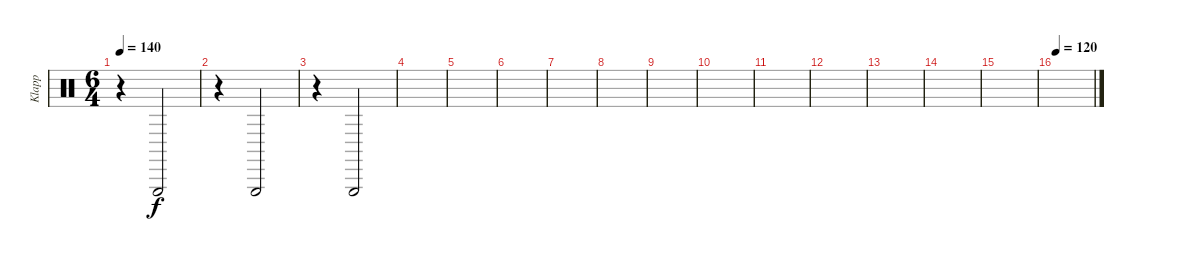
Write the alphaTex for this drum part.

\track ("Klapp" "Klapp") {instrument percussion}
\staff {score}
\articulation defaults
\ts (6 4)
\tempo 140
\clef neutral
\ks c
r.4{dy f} "Triangle (hit)".2 |
r.4 "Triangle (hit)".2 |
r.4 "Triangle (hit)".2 |
|
|
|
|
|
|
|
|
|
|
|
|
\tempo 120
